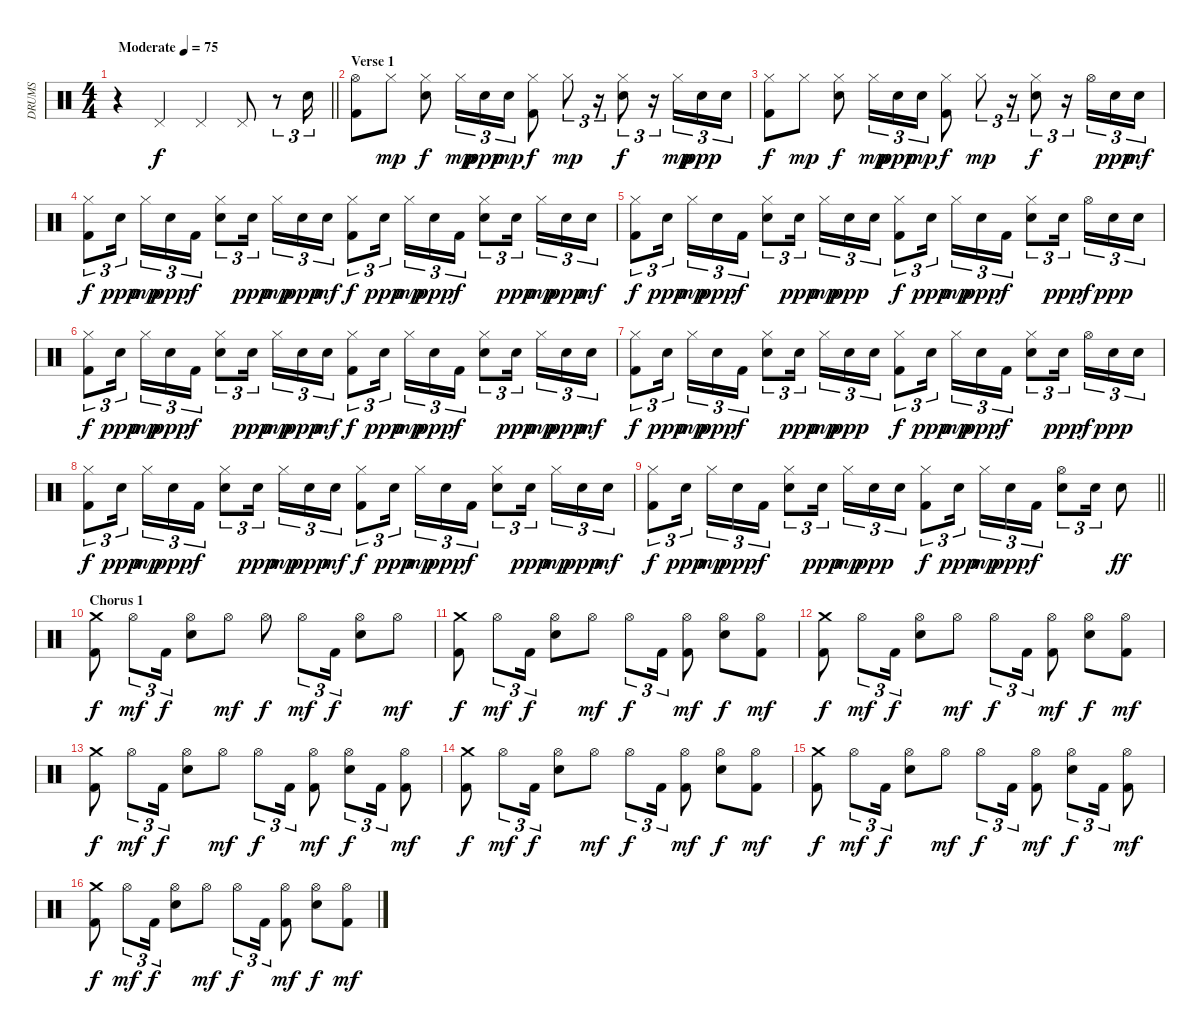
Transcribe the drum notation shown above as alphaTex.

\track ("DRUMS" "DRUMS") {instrument percussion}
\staff {score}
\articulation defaults
\ts (4 4)
\tempo (75 "Moderate")
\clef neutral
\barLineRight lightlight
\ks c
r.4{dy f} "Pedal Hi-Hat (hit)".4 "Pedal Hi-Hat (hit)".4 "Pedal Hi-Hat (hit)".8 r.8{tu (3 2)} "Snare (hit) 2".16{tu (3 2)} |
\section ("" "Verse 1")
("Hi-Hat (open)" "Kick (hit) 2").8 "Hi-Hat (closed)".8{dy mp} ("Hi-Hat (closed)" "Snare (hit) 2").8{dy f} "Hi-Hat (closed)".16{tu (3 2) dy mp} "Snare (hit) 2".16{tu (3 2) dy ppp} "Snare (hit) 2".16{tu (3 2) dy mp} ("Hi-Hat (closed)" "Kick (hit) 2").8{dy f} "Hi-Hat (closed)".8{tu (3 2) dy mp} r.16{tu (3 2)} ("Hi-Hat (closed)" "Snare (hit) 2").8{tu (3 2) dy f} r.16{tu (3 2)} "Hi-Hat (closed)".16{tu (3 2) dy mp} "Snare (hit) 2".16{tu (3 2) dy ppp} "Snare (hit) 2".16{tu (3 2)} |
("Hi-Hat (closed)" "Kick (hit) 2").8{dy f} "Hi-Hat (closed)".8{dy mp} ("Hi-Hat (closed)" "Snare (hit) 2").8{dy f} "Hi-Hat (closed)".16{tu (3 2) dy mp} "Snare (hit) 2".16{tu (3 2) dy ppp} "Snare (hit) 2".16{tu (3 2) dy mp} ("Hi-Hat (closed)" "Kick (hit) 2").8{dy f} "Hi-Hat (closed)".8{tu (3 2) dy mp} r.16{tu (3 2)} ("Hi-Hat (closed)" "Snare (hit) 2").8{tu (3 2) dy f} r.16{tu (3 2)} "Hi-Hat (open)".16{tu (3 2)} "Snare (hit) 2".16{tu (3 2) dy ppp} "Snare (hit) 2".16{tu (3 2) dy mf} |
("Hi-Hat (closed)" "Kick (hit) 2").8{tu (3 2) dy f} "Snare (hit) 2".16{tu (3 2) dy ppp beam splitsecondary} "Hi-Hat (closed)".16{tu (3 2) dy mp} "Snare (hit) 2".16{tu (3 2) dy ppp} "Kick (hit) 2".16{tu (3 2) dy f} ("Hi-Hat (closed)" "Snare (hit) 2").8{tu (3 2)} "Snare (hit) 2".16{tu (3 2) dy ppp beam splitsecondary} "Hi-Hat (closed)".16{tu (3 2) dy mp} "Snare (hit) 2".16{tu (3 2) dy ppp} "Snare (hit) 2".16{tu (3 2) dy mf} ("Hi-Hat (closed)" "Kick (hit) 2").8{tu (3 2) dy f} "Snare (hit) 2".16{tu (3 2) dy ppp beam splitsecondary} "Hi-Hat (closed)".16{tu (3 2) dy mp} "Snare (hit) 2".16{tu (3 2) dy ppp} "Kick (hit) 2".16{tu (3 2) dy f} ("Hi-Hat (closed)" "Snare (hit) 2").8{tu (3 2)} "Snare (hit) 2".16{tu (3 2) dy ppp beam splitsecondary} "Hi-Hat (closed)".16{tu (3 2) dy mp} "Snare (hit) 2".16{tu (3 2) dy ppp} "Snare (hit) 2".16{tu (3 2) dy mf} |
("Hi-Hat (closed)" "Kick (hit) 2").8{tu (3 2) dy f} "Snare (hit) 2".16{tu (3 2) dy ppp beam splitsecondary} "Hi-Hat (closed)".16{tu (3 2) dy mp} "Snare (hit) 2".16{tu (3 2) dy ppp} "Kick (hit) 2".16{tu (3 2) dy f} ("Hi-Hat (closed)" "Snare (hit) 2").8{tu (3 2)} "Snare (hit) 2".16{tu (3 2) dy ppp beam splitsecondary} "Hi-Hat (closed)".16{tu (3 2) dy mp} "Snare (hit) 2".16{tu (3 2) dy ppp} "Snare (hit) 2".16{tu (3 2)} ("Hi-Hat (closed)" "Kick (hit) 2").8{tu (3 2) dy f} "Snare (hit) 2".16{tu (3 2) dy ppp beam splitsecondary} "Hi-Hat (closed)".16{tu (3 2) dy mp} "Snare (hit) 2".16{tu (3 2) dy ppp} "Kick (hit) 2".16{tu (3 2) dy f} ("Hi-Hat (closed)" "Snare (hit) 2").8{tu (3 2)} "Snare (hit) 2".16{tu (3 2) dy ppp beam splitsecondary} "Hi-Hat (open)".16{tu (3 2) dy f} "Snare (hit) 2".16{tu (3 2) dy ppp} "Snare (hit) 2".16{tu (3 2)} |
("Hi-Hat (closed)" "Kick (hit) 2").8{tu (3 2) dy f} "Snare (hit) 2".16{tu (3 2) dy ppp beam splitsecondary} "Hi-Hat (closed)".16{tu (3 2) dy mp} "Snare (hit) 2".16{tu (3 2) dy ppp} "Kick (hit) 2".16{tu (3 2) dy f} ("Hi-Hat (closed)" "Snare (hit) 2").8{tu (3 2)} "Snare (hit) 2".16{tu (3 2) dy ppp beam splitsecondary} "Hi-Hat (closed)".16{tu (3 2) dy mp} "Snare (hit) 2".16{tu (3 2) dy ppp} "Snare (hit) 2".16{tu (3 2) dy mf} ("Hi-Hat (closed)" "Kick (hit) 2").8{tu (3 2) dy f} "Snare (hit) 2".16{tu (3 2) dy ppp beam splitsecondary} "Hi-Hat (closed)".16{tu (3 2) dy mp} "Snare (hit) 2".16{tu (3 2) dy ppp} "Kick (hit) 2".16{tu (3 2) dy f} ("Hi-Hat (closed)" "Snare (hit) 2").8{tu (3 2)} "Snare (hit) 2".16{tu (3 2) dy ppp beam splitsecondary} "Hi-Hat (closed)".16{tu (3 2) dy mp} "Snare (hit) 2".16{tu (3 2) dy ppp} "Snare (hit) 2".16{tu (3 2) dy mf} |
("Hi-Hat (closed)" "Kick (hit) 2").8{tu (3 2) dy f} "Snare (hit) 2".16{tu (3 2) dy ppp beam splitsecondary} "Hi-Hat (closed)".16{tu (3 2) dy mp} "Snare (hit) 2".16{tu (3 2) dy ppp} "Kick (hit) 2".16{tu (3 2) dy f} ("Hi-Hat (closed)" "Snare (hit) 2").8{tu (3 2)} "Snare (hit) 2".16{tu (3 2) dy ppp beam splitsecondary} "Hi-Hat (closed)".16{tu (3 2) dy mp} "Snare (hit) 2".16{tu (3 2) dy ppp} "Snare (hit) 2".16{tu (3 2)} ("Hi-Hat (closed)" "Kick (hit) 2").8{tu (3 2) dy f} "Snare (hit) 2".16{tu (3 2) dy ppp beam splitsecondary} "Hi-Hat (closed)".16{tu (3 2) dy mp} "Snare (hit) 2".16{tu (3 2) dy ppp} "Kick (hit) 2".16{tu (3 2) dy f} ("Hi-Hat (closed)" "Snare (hit) 2").8{tu (3 2)} "Snare (hit) 2".16{tu (3 2) dy ppp beam splitsecondary} "Hi-Hat (open)".16{tu (3 2) dy f} "Snare (hit) 2".16{tu (3 2) dy ppp} "Snare (hit) 2".16{tu (3 2)} |
("Hi-Hat (closed)" "Kick (hit) 2").8{tu (3 2) dy f} "Snare (hit) 2".16{tu (3 2) dy ppp beam splitsecondary} "Hi-Hat (closed)".16{tu (3 2) dy mp} "Snare (hit) 2".16{tu (3 2) dy ppp} "Kick (hit) 2".16{tu (3 2) dy f} ("Hi-Hat (closed)" "Snare (hit) 2").8{tu (3 2)} "Snare (hit) 2".16{tu (3 2) dy ppp beam splitsecondary} "Hi-Hat (closed)".16{tu (3 2) dy mp} "Snare (hit) 2".16{tu (3 2) dy ppp} "Snare (hit) 2".16{tu (3 2) dy mf} ("Hi-Hat (closed)" "Kick (hit) 2").8{tu (3 2) dy f} "Snare (hit) 2".16{tu (3 2) dy ppp beam splitsecondary} "Hi-Hat (closed)".16{tu (3 2) dy mp} "Snare (hit) 2".16{tu (3 2) dy ppp} "Kick (hit) 2".16{tu (3 2) dy f} ("Hi-Hat (closed)" "Snare (hit) 2").8{tu (3 2)} "Snare (hit) 2".16{tu (3 2) dy ppp beam splitsecondary} "Hi-Hat (closed)".16{tu (3 2) dy mp} "Snare (hit) 2".16{tu (3 2) dy ppp} "Snare (hit) 2".16{tu (3 2) dy mf} |
\barLineRight lightlight
("Hi-Hat (closed)" "Kick (hit) 2").8{tu (3 2) dy f} "Snare (hit) 2".16{tu (3 2) dy ppp beam splitsecondary} "Hi-Hat (closed)".16{tu (3 2) dy mp} "Snare (hit) 2".16{tu (3 2) dy ppp} "Kick (hit) 2".16{tu (3 2) dy f} ("Hi-Hat (closed)" "Snare (hit) 2").8{tu (3 2)} "Snare (hit) 2".16{tu (3 2) dy ppp beam splitsecondary} "Hi-Hat (closed)".16{tu (3 2) dy mp} "Snare (hit) 2".16{tu (3 2) dy ppp} "Snare (hit) 2".16{tu (3 2)} ("Hi-Hat (closed)" "Kick (hit) 2").8{tu (3 2) dy f} "Snare (hit) 2".16{tu (3 2) dy ppp beam splitsecondary} "Hi-Hat (closed)".16{tu (3 2) dy mp} "Snare (hit) 2".16{tu (3 2) dy ppp} "Kick (hit) 2".16{tu (3 2) dy f} ("Hi-Hat (open)" "Snare (hit) 2").8{tu (3 2)} "Snare (hit) 2".16{tu (3 2)} "Electric Snare (hit)".8{dy ff} |
\section ("" "Chorus 1")
("Crash medium (hit)" "Kick (hit) 2").8{dy f} "Hi-Hat (open)".8{tu (3 2) dy mf} "Kick (hit) 2".16{tu (3 2) dy f} ("Hi-Hat (open)" "Snare (hit) 2").8 "Hi-Hat (open)".8{dy mf} "Hi-Hat (open)".8{dy f} "Hi-Hat (open)".8{tu (3 2) dy mf} "Kick (hit) 2".16{tu (3 2) dy f} ("Hi-Hat (open)" "Snare (hit) 2").8 "Hi-Hat (open)".8{dy mf} |
("Crash medium (hit)" "Kick (hit) 2").8{dy f} "Hi-Hat (open)".8{tu (3 2) dy mf} "Kick (hit) 2".16{tu (3 2) dy f} ("Hi-Hat (open)" "Snare (hit) 2").8 "Hi-Hat (open)".8{dy mf} "Hi-Hat (open)".8{tu (3 2) dy f} "Kick (hit) 2".16{tu (3 2)} ("Hi-Hat (open)" "Kick (hit) 2").8{dy mf} ("Hi-Hat (open)" "Snare (hit) 2").8{dy f} ("Hi-Hat (open)" "Kick (hit) 2").8{dy mf} |
("Crash medium (hit)" "Kick (hit) 2").8{dy f} "Hi-Hat (open)".8{tu (3 2) dy mf} "Kick (hit) 2".16{tu (3 2) dy f} ("Hi-Hat (open)" "Snare (hit) 2").8 "Hi-Hat (open)".8{dy mf} "Hi-Hat (open)".8{tu (3 2) dy f} "Kick (hit) 2".16{tu (3 2)} ("Hi-Hat (open)" "Kick (hit) 2").8{dy mf} ("Hi-Hat (open)" "Snare (hit) 2").8{dy f} ("Hi-Hat (open)" "Kick (hit) 2").8{dy mf} |
("Crash medium (hit)" "Kick (hit) 2").8{dy f} "Hi-Hat (open)".8{tu (3 2) dy mf} "Kick (hit) 2".16{tu (3 2) dy f} ("Hi-Hat (open)" "Snare (hit) 2").8 "Hi-Hat (open)".8{dy mf} "Hi-Hat (open)".8{tu (3 2) dy f} "Kick (hit) 2".16{tu (3 2)} ("Hi-Hat (open)" "Kick (hit) 2").8{dy mf} ("Hi-Hat (open)" "Snare (hit) 2").8{tu (3 2) dy f} "Kick (hit) 2".16{tu (3 2)} ("Hi-Hat (open)" "Kick (hit) 2").8{dy mf} |
("Crash medium (hit)" "Kick (hit) 2").8{dy f} "Hi-Hat (open)".8{tu (3 2) dy mf} "Kick (hit) 2".16{tu (3 2) dy f} ("Hi-Hat (open)" "Snare (hit) 2").8 "Hi-Hat (open)".8{dy mf} "Hi-Hat (open)".8{tu (3 2) dy f} "Kick (hit) 2".16{tu (3 2)} ("Hi-Hat (open)" "Kick (hit) 2").8{dy mf} ("Hi-Hat (open)" "Snare (hit) 2").8{dy f} ("Hi-Hat (open)" "Kick (hit) 2").8{dy mf} |
("Crash medium (hit)" "Kick (hit) 2").8{dy f} "Hi-Hat (open)".8{tu (3 2) dy mf} "Kick (hit) 2".16{tu (3 2) dy f} ("Hi-Hat (open)" "Snare (hit) 2").8 "Hi-Hat (open)".8{dy mf} "Hi-Hat (open)".8{tu (3 2) dy f} "Kick (hit) 2".16{tu (3 2)} ("Hi-Hat (open)" "Kick (hit) 2").8{dy mf} ("Hi-Hat (open)" "Snare (hit) 2").8{tu (3 2) dy f} "Kick (hit) 2".16{tu (3 2)} ("Hi-Hat (open)" "Kick (hit) 2").8{dy mf} |
("Crash medium (hit)" "Kick (hit) 2").8{dy f} "Hi-Hat (open)".8{tu (3 2) dy mf} "Kick (hit) 2".16{tu (3 2) dy f} ("Hi-Hat (open)" "Snare (hit) 2").8 "Hi-Hat (open)".8{dy mf} "Hi-Hat (open)".8{tu (3 2) dy f} "Kick (hit) 2".16{tu (3 2)} ("Hi-Hat (open)" "Kick (hit) 2").8{dy mf} ("Hi-Hat (open)" "Snare (hit) 2").8{dy f} ("Hi-Hat (open)" "Kick (hit) 2").8{dy mf}
